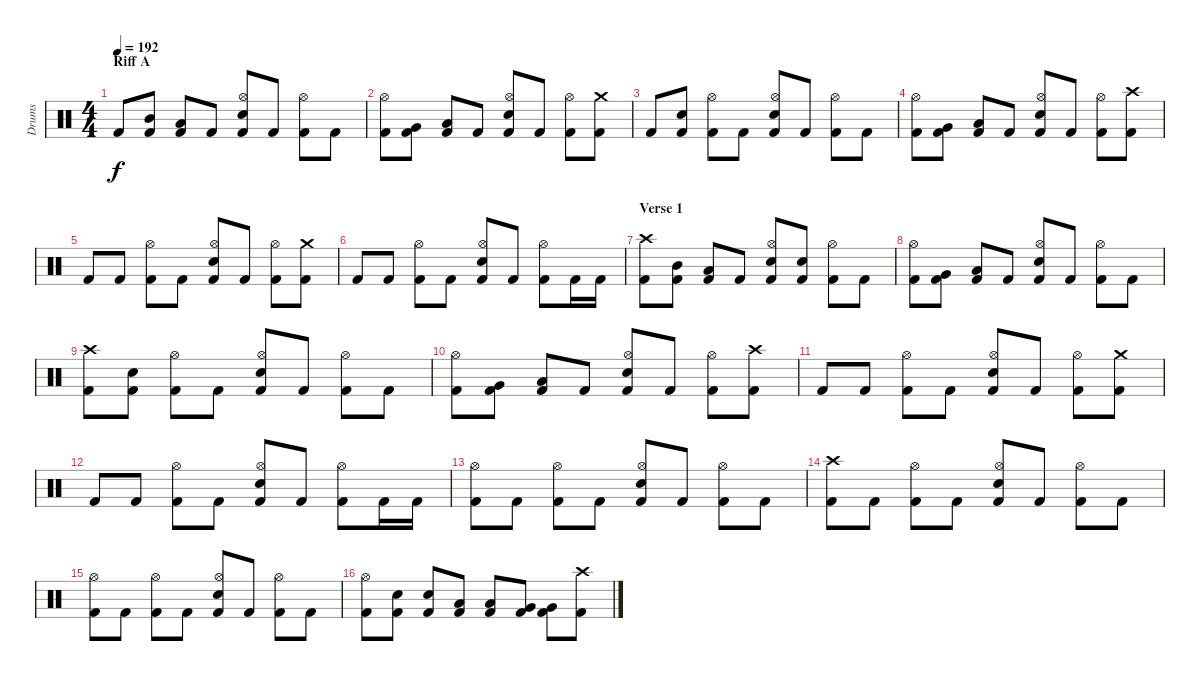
\track ("Drums" "Drums") {instrument percussion}
\staff {score}
\articulation defaults
\ts (4 4)
\section ("" "Riff A")
\tempo 192
\clef neutral
\ks c "Kick (hit) 2".8{dy f}
("Mid Tom (hit)" "Kick (hit) 2").8 ("Low Tom (hit)" "Kick (hit) 2").8 "Kick (hit) 2".8 ("Hi-Hat (open)" "Snare (hit) 2" "Kick (hit) 2").8 "Kick (hit) 2".8 ("Hi-Hat (open)" "Kick (hit) 2").8 "Kick (hit) 2".8 |
("Hi-Hat (open)" "Kick (hit) 2").8 ("Very Low Tom (hit)" "Kick (hit) 2").8 ("Low Floor Tom (hit)" "Kick (hit) 2").8 "Kick (hit) 2".8 ("Hi-Hat (open)" "Snare (hit) 2" "Kick (hit) 2").8 "Kick (hit) 2".8 ("Hi-Hat (open)" "Kick (hit) 2").8 ("Crash medium (hit)" "Kick (hit) 2").8 |
"Kick (hit) 2".8 ("Snare (hit) 2" "Kick (hit) 2").8 ("Hi-Hat (open)" "Kick (hit) 2").8 "Kick (hit) 2".8 ("Hi-Hat (open)" "Snare (hit) 2" "Kick (hit) 2").8 "Kick (hit) 2".8 ("Hi-Hat (open)" "Kick (hit) 2").8 "Kick (hit) 2".8 |
("Hi-Hat (open)" "Kick (hit) 2").8 ("Very Low Tom (hit)" "Kick (hit) 2").8 ("Low Floor Tom (hit)" "Kick (hit) 2").8 "Kick (hit) 2".8 ("Hi-Hat (open)" "Snare (hit) 2" "Kick (hit) 2").8 "Kick (hit) 2".8 ("Hi-Hat (open)" "Kick (hit) 2").8 ("Crash high (hit)" "Kick (hit) 2").8 |
"Kick (hit) 2".8 "Kick (hit) 2".8 ("Hi-Hat (open)" "Kick (hit) 2").8 "Kick (hit) 2".8 ("Hi-Hat (open)" "Snare (hit) 2" "Kick (hit) 2").8 "Kick (hit) 2".8 ("Hi-Hat (open)" "Kick (hit) 2").8 ("Crash medium (hit)" "Kick (hit) 2").8 |
"Kick (hit) 2".8 "Kick (hit) 2".8 ("Hi-Hat (open)" "Kick (hit) 2").8 "Kick (hit) 2".8 ("Hi-Hat (open)" "Snare (hit) 2" "Kick (hit) 2").8 "Kick (hit) 2".8 ("Hi-Hat (open)" "Kick (hit) 2").8 "Kick (hit) 2".16 "Kick (hit) 2".16 |
\section ("" "Verse 1")
("Crash high (hit)" "Kick (hit) 2").8 ("Mid Tom (hit)" "Kick (hit) 2").8 ("Low Tom (hit)" "Kick (hit) 2").8 "Kick (hit) 2".8 ("Hi-Hat (open)" "Snare (hit) 2" "Kick (hit) 2").8 ("Snare (hit) 2" "Kick (hit) 2").8 ("Hi-Hat (open)" "Kick (hit) 2").8 "Kick (hit) 2".8 |
("Hi-Hat (open)" "Kick (hit) 2").8 ("Very Low Tom (hit)" "Kick (hit) 2").8 ("Low Floor Tom (hit)" "Kick (hit) 2").8 "Kick (hit) 2".8 ("Hi-Hat (open)" "Snare (hit) 2" "Kick (hit) 2").8 "Kick (hit) 2".8 ("Hi-Hat (open)" "Kick (hit) 2").8 "Kick (hit) 2".8 |
("Crash high (hit)" "Kick (hit) 2").8 ("Snare (hit) 2" "Kick (hit) 2").8 ("Hi-Hat (open)" "Kick (hit) 2").8 "Kick (hit) 2".8 ("Hi-Hat (open)" "Snare (hit) 2" "Kick (hit) 2").8 "Kick (hit) 2".8 ("Hi-Hat (open)" "Kick (hit) 2").8 "Kick (hit) 2".8 |
("Hi-Hat (open)" "Kick (hit) 2").8 ("Very Low Tom (hit)" "Kick (hit) 2").8 ("Low Floor Tom (hit)" "Kick (hit) 2").8 "Kick (hit) 2".8 ("Hi-Hat (open)" "Snare (hit) 2" "Kick (hit) 2").8 "Kick (hit) 2".8 ("Hi-Hat (open)" "Kick (hit) 2").8 ("Crash high (hit)" "Kick (hit) 2").8 |
"Kick (hit) 2".8 "Kick (hit) 2".8 ("Hi-Hat (open)" "Kick (hit) 2").8 "Kick (hit) 2".8 ("Hi-Hat (open)" "Snare (hit) 2" "Kick (hit) 2").8 "Kick (hit) 2".8 ("Hi-Hat (open)" "Kick (hit) 2").8 ("Crash medium (hit)" "Kick (hit) 2").8 |
"Kick (hit) 2".8 "Kick (hit) 2".8 ("Hi-Hat (open)" "Kick (hit) 2").8 "Kick (hit) 2".8 ("Hi-Hat (open)" "Snare (hit) 2" "Kick (hit) 2").8 "Kick (hit) 2".8 ("Hi-Hat (open)" "Kick (hit) 2").8 "Kick (hit) 2".16 "Kick (hit) 2".16 |
("Hi-Hat (open)" "Kick (hit) 2").8 "Kick (hit) 2".8 ("Hi-Hat (open)" "Kick (hit) 2").8 "Kick (hit) 2".8 ("Hi-Hat (open)" "Snare (hit) 2" "Kick (hit) 2").8 "Kick (hit) 2".8 ("Hi-Hat (open)" "Kick (hit) 2").8 "Kick (hit) 2".8 |
("Crash high (hit)" "Kick (hit) 2").8 "Kick (hit) 2".8 ("Hi-Hat (open)" "Kick (hit) 2").8 "Kick (hit) 2".8 ("Hi-Hat (open)" "Snare (hit) 2" "Kick (hit) 2").8 "Kick (hit) 2".8 ("Hi-Hat (open)" "Kick (hit) 2").8 "Kick (hit) 2".8 |
("Hi-Hat (open)" "Kick (hit) 2").8 "Kick (hit) 2".8 ("Hi-Hat (open)" "Kick (hit) 2").8 "Kick (hit) 2".8 ("Hi-Hat (open)" "Snare (hit) 2" "Kick (hit) 2").8 "Kick (hit) 2".8 ("Hi-Hat (open)" "Kick (hit) 2").8 "Kick (hit) 2".8 |
("Hi-Hat (open)" "Kick (hit) 2").8 ("Snare (hit) 2" "Kick (hit) 2").8 ("Snare (hit) 2" "Kick (hit) 2").8 ("Low Tom (hit)" "Kick (hit) 2").8 ("Low Tom (hit)" "Kick (hit) 2").8 ("Very Low Tom (hit)" "Kick (hit) 2").8 ("Very Low Tom (hit)" "Kick (hit) 2").8 ("Crash high (hit)" "Kick (hit) 2").8
